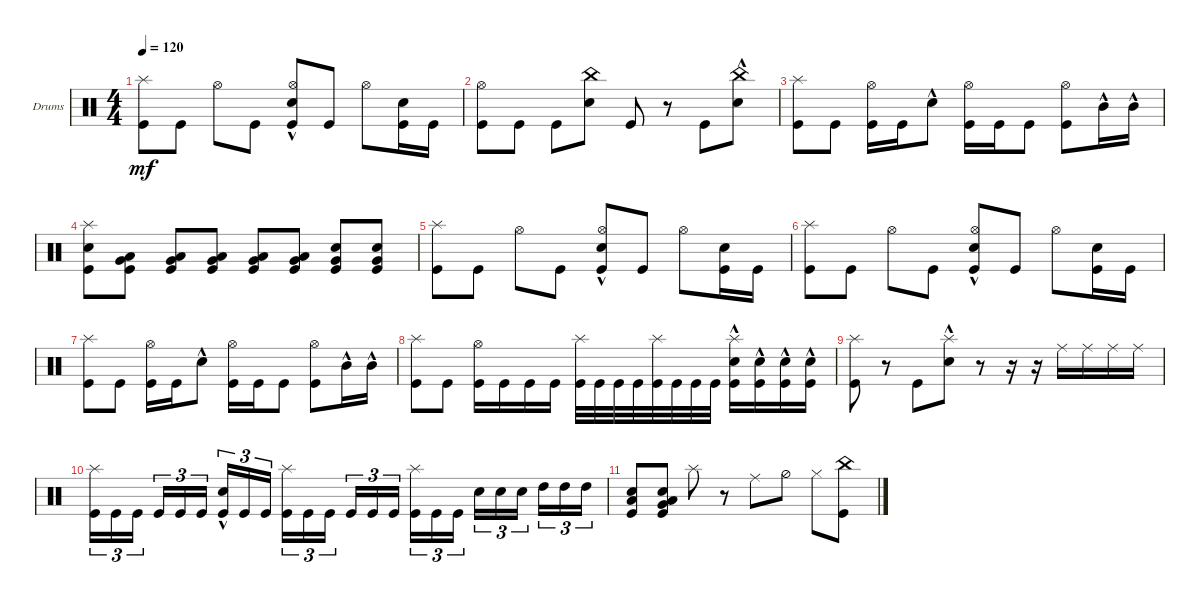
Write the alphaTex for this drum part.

\defaultSystemsLayout 4
\bracketExtendMode groupsimilarinstruments
\firstSystemTrackNameOrientation horizontal
\otherSystemsTrackNameOrientation horizontal
\track ("Travis" "Drums") {instrument percussion}
\staff {score}
\articulation defaults
\ts (4 4)
\tempo 120
\clef neutral
\scale
0.474178
\ks c
("Splash (hit)" "Kick (hit)").8{dy mf} "Kick (hit)".8 "Hi-Hat (open)".8 "Kick (hit)".8 ("Snare (hit) 2"{hac} "Hi-Hat (open)" "Kick (hit)").8 "Kick (hit)".8 "Hi-Hat (open)".8 ("Snare (hit) 2" "Kick (hit)").16 "Kick (hit)".16 |
\scale
0.262911 ("Kick (hit)" "Hi-Hat (open)").8 "Kick (hit)".8 "Kick (hit)".8 ("Snare (hit) 2" "China (hit)").8 "Kick (hit)".8 r.8 "Kick (hit)".8 ("Snare (hit) 2"{hac} "China (hit)").8 |
\scale
0.262911 ("Kick (hit)" "Splash (hit)").8 "Kick (hit)".8 ("Kick (hit)" "Hi-Hat (open)").16 "Kick (hit)".16 "Snare (hit) 2"{hac}.8 ("Kick (hit)" "Hi-Hat (open)").16 "Kick (hit)".16 "Kick (hit)".8 ("Kick (hit)" "Hi-Hat (open)").8 "Mid Tom (hit)"{hac}.16 "Mid Tom (hit)"{hac}.16 |
\scale
0.333333 ("Splash (hit)" "Snare (hit) 2" "Kick (hit)").8 ("Kick (hit)" "Very Low Tom (hit)" "Low Tom (hit)").8 ("Kick (hit)" "Very Low Tom (hit)" "Low Tom (hit)").8 ("Kick (hit)" "Very Low Tom (hit)" "Low Tom (hit)").8 ("Kick (hit)" "Very Low Tom (hit)" "Low Tom (hit)").8 ("Kick (hit)" "Very Low Tom (hit)" "Low Tom (hit)").8 ("Kick (hit)" "Very Low Tom (hit)" "Snare (hit) 2").8 ("Kick (hit)" "Very Low Tom (hit)" "Snare (hit) 2").8 |
\scale
0.333333 ("Splash (hit)" "Kick (hit)").8 "Kick (hit)".8 "Hi-Hat (open)".8 "Kick (hit)".8 ("Snare (hit) 2"{hac} "Hi-Hat (open)" "Kick (hit)").8 "Kick (hit)".8 "Hi-Hat (open)".8 ("Snare (hit) 2" "Kick (hit)").16 "Kick (hit)".16 |
\scale
0.333333 ("Splash (hit)" "Kick (hit)").8 "Kick (hit)".8 "Hi-Hat (open)".8 "Kick (hit)".8 ("Snare (hit) 2"{hac} "Hi-Hat (open)" "Kick (hit)").8 "Kick (hit)".8 "Hi-Hat (open)".8 ("Snare (hit) 2" "Kick (hit)").16 "Kick (hit)".16 |
\scale
0.333333 ("Kick (hit)" "Splash (hit)").8 "Kick (hit)".8 ("Kick (hit)" "Hi-Hat (open)").16 "Kick (hit)".16 "Snare (hit) 2"{hac}.8 ("Kick (hit)" "Hi-Hat (open)").16 "Kick (hit)".16 "Kick (hit)".8 ("Kick (hit)" "Hi-Hat (open)").8 "Mid Tom (hit)"{hac}.16 "Mid Tom (hit)"{hac}.16 |
\scale
0.333333 ("Splash (hit)" "Kick (hit)").8 "Kick (hit)".8 ("Kick (hit)" "Hi-Hat (open)").16 "Kick (hit)".16 "Kick (hit)".16 "Kick (hit)".16 ("Kick (hit)" "Splash (hit)").32 "Kick (hit)".32 "Kick (hit)".32 "Kick (hit)".32 ("Kick (hit)" "Splash (hit)").32 "Kick (hit)".32 "Kick (hit)".32 "Kick (hit)".32 ("Kick (hit)" "Splash (hit)" "Snare (hit) 2"{hac}).16 ("Kick (hit)" "Snare (hit) 2"{hac}).16 ("Kick (hit)" "Snare (hit) 2"{hac}).16 ("Kick (hit)" "Snare (hit) 2"{hac}).16 |
\scale
0.333333 ("Splash (hit)" "Kick (hit)").8 r.8 "Kick (hit)".8 ("Snare (hit) 2"{hac} "Splash (hit)").8 r.8 r.16 r.16 "Ride (middle)".16 "Ride (middle)".16 "Ride (middle)".16 "Ride (middle)".16 |
\scale
0.333333 ("Kick (hit)" "Splash (hit)").16{tu (3 2)} "Kick (hit)".16{tu (3 2)} "Kick (hit)".16{tu (3 2)} "Kick (hit)".16{tu (3 2)} "Kick (hit)".16{tu (3 2)} "Kick (hit)".16{tu (3 2)} ("Kick (hit)" "Snare (hit) 2"{hac}).16{tu (3 2)} "Kick (hit)".16{tu (3 2)} "Kick (hit)".16{tu (3 2)} ("Kick (hit)" "Splash (hit)").16{tu (3 2)} "Kick (hit)".16{tu (3 2)} "Kick (hit)".16{tu (3 2)} "Kick (hit)".16{tu (3 2)} "Kick (hit)".16{tu (3 2)} "Kick (hit)".16{tu (3 2)} ("Kick (hit)" "Splash (hit)").16{tu (3 2)} "Kick (hit)".16{tu (3 2)} "Kick (hit)".16{tu (3 2)} "Snare (hit) 2".16{tu (3 2)} "Snare (hit) 2".16{tu (3 2)} "Snare (hit) 2".16{tu (3 2)} "High Tom (hit)".16{tu (3 2)} "High Tom (hit)".16{tu (3 2)} "High Tom (hit)".16{tu (3 2)} |
\scale
0.333333 ("Kick (hit)" "Low Tom (hit)" "Snare (hit) 2").8 ("Snare (hit) 2" "Low Tom (hit)" "Very Low Tom (hit)" "Kick (hit)").8 "Splash (hit)".8 r.8 "Ride (middle)".8 "Hi-Hat (half)".8 "Hi-Hat (closed)".8 ("China (hit)" "Kick (hit)").8 |
\scale
0.333333 |
\scale
0.333333 |
\scale
0.333333 |
\scale
0.333333 |
\scale
0.333333
